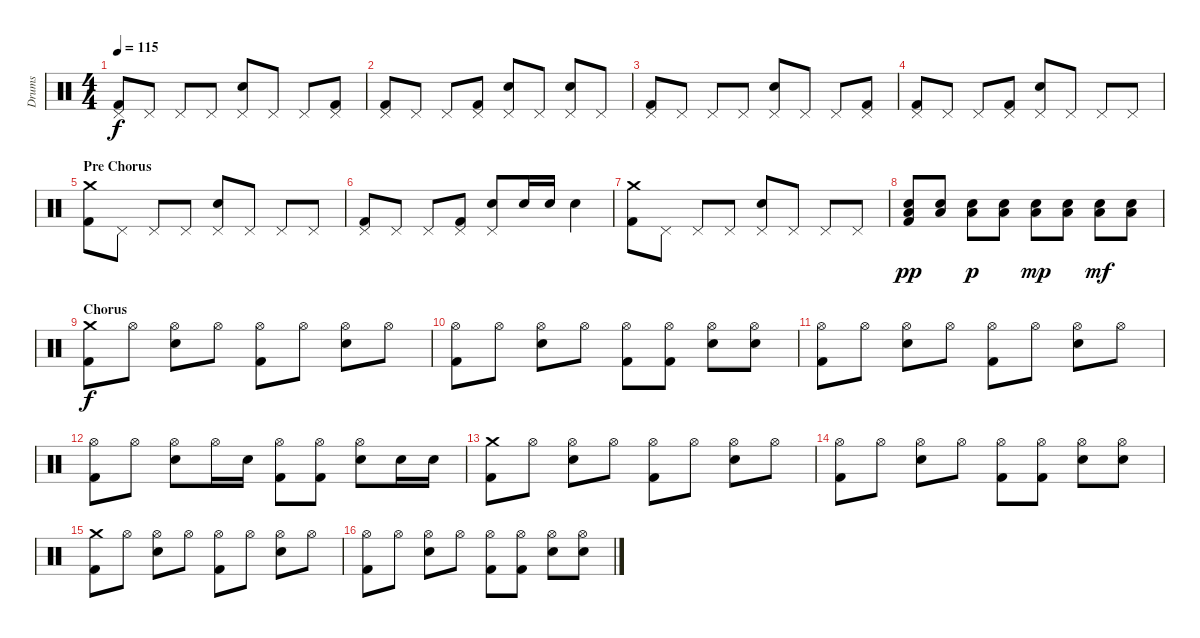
\track ("Drums" "Drums") {instrument percussion}
\staff {score}
\articulation defaults
\ts (4 4)
\tempo 115
\clef neutral
\ks c
("Pedal Hi-Hat (hit)" "Kick (hit) 2").8{dy f} "Pedal Hi-Hat (hit)".8 "Pedal Hi-Hat (hit)".8 "Pedal Hi-Hat (hit)".8 ("Pedal Hi-Hat (hit)" "Electric Snare (hit)").8 "Pedal Hi-Hat (hit)".8 "Pedal Hi-Hat (hit)".8 ("Pedal Hi-Hat (hit)" "Kick (hit) 2").8 |
("Pedal Hi-Hat (hit)" "Kick (hit) 2").8 "Pedal Hi-Hat (hit)".8 "Pedal Hi-Hat (hit)".8 ("Pedal Hi-Hat (hit)" "Kick (hit) 2").8 ("Pedal Hi-Hat (hit)" "Electric Snare (hit)").8 "Pedal Hi-Hat (hit)".8 ("Pedal Hi-Hat (hit)" "Electric Snare (hit)").8 "Pedal Hi-Hat (hit)".8 |
("Pedal Hi-Hat (hit)" "Kick (hit) 2").8 "Pedal Hi-Hat (hit)".8 "Pedal Hi-Hat (hit)".8 "Pedal Hi-Hat (hit)".8 ("Pedal Hi-Hat (hit)" "Electric Snare (hit)").8 "Pedal Hi-Hat (hit)".8 "Pedal Hi-Hat (hit)".8 ("Pedal Hi-Hat (hit)" "Kick (hit) 2").8 |
("Pedal Hi-Hat (hit)" "Kick (hit) 2").8 "Pedal Hi-Hat (hit)".8 "Pedal Hi-Hat (hit)".8 ("Pedal Hi-Hat (hit)" "Kick (hit) 2").8 ("Pedal Hi-Hat (hit)" "Electric Snare (hit)").8 "Pedal Hi-Hat (hit)".8 "Pedal Hi-Hat (hit)".8 "Pedal Hi-Hat (hit)".8 |
\section ("" "Pre Chorus")
("Crash medium (hit)" "Kick (hit) 2").8 "Pedal Hi-Hat (hit)".8 "Pedal Hi-Hat (hit)".8 "Pedal Hi-Hat (hit)".8 ("Pedal Hi-Hat (hit)" "Electric Snare (hit)").8 "Pedal Hi-Hat (hit)".8 "Pedal Hi-Hat (hit)".8 "Pedal Hi-Hat (hit)".8 |
("Pedal Hi-Hat (hit)" "Kick (hit) 2").8 "Pedal Hi-Hat (hit)".8 "Pedal Hi-Hat (hit)".8 ("Pedal Hi-Hat (hit)" "Kick (hit) 2").8 ("Pedal Hi-Hat (hit)" "Electric Snare (hit)").8 "Electric Snare (hit)".16 "Electric Snare (hit)".16 "Electric Snare (hit)".4 |
("Crash medium (hit)" "Kick (hit) 2").8 "Pedal Hi-Hat (hit)".8 "Pedal Hi-Hat (hit)".8 "Pedal Hi-Hat (hit)".8 ("Pedal Hi-Hat (hit)" "Electric Snare (hit)").8 "Pedal Hi-Hat (hit)".8 "Pedal Hi-Hat (hit)".8 "Pedal Hi-Hat (hit)".8 |
("Electric Snare (hit)" "Low Tom (hit)" "Kick (hit) 2").8{dy pp} ("Electric Snare (hit)" "Low Tom (hit)").8 ("Electric Snare (hit)" "Low Tom (hit)").8{dy p} ("Electric Snare (hit)" "Low Tom (hit)").8 ("Electric Snare (hit)" "Low Tom (hit)").8{dy mp} ("Electric Snare (hit)" "Low Tom (hit)").8 ("Electric Snare (hit)" "Low Tom (hit)").8{dy mf} ("Electric Snare (hit)" "Low Tom (hit)").8 |
\section ("" "Chorus")
("Crash medium (hit)" "Kick (hit) 2").8{dy f} "Hi-Hat (open)".8 ("Hi-Hat (open)" "Electric Snare (hit)").8 "Hi-Hat (open)".8 ("Hi-Hat (open)" "Kick (hit) 2").8 "Hi-Hat (open)".8 ("Hi-Hat (open)" "Electric Snare (hit)").8 "Hi-Hat (open)".8 |
("Hi-Hat (open)" "Kick (hit) 2").8 "Hi-Hat (open)".8 ("Hi-Hat (open)" "Electric Snare (hit)").8 "Hi-Hat (open)".8 ("Hi-Hat (open)" "Kick (hit) 2").8 ("Hi-Hat (open)" "Kick (hit) 2").8 ("Hi-Hat (open)" "Electric Snare (hit)").8 ("Hi-Hat (open)" "Electric Snare (hit)").8 |
("Hi-Hat (open)" "Kick (hit) 2").8 "Hi-Hat (open)".8 ("Hi-Hat (open)" "Electric Snare (hit)").8 "Hi-Hat (open)".8 ("Hi-Hat (open)" "Kick (hit) 2").8 "Hi-Hat (open)".8 ("Hi-Hat (open)" "Electric Snare (hit)").8 "Hi-Hat (open)".8 |
("Hi-Hat (open)" "Kick (hit) 2").8 "Hi-Hat (open)".8 ("Hi-Hat (open)" "Electric Snare (hit)").8 "Hi-Hat (open)".16 "Electric Snare (hit)".16 ("Hi-Hat (open)" "Kick (hit) 2").8 ("Hi-Hat (open)" "Kick (hit) 2").8 ("Hi-Hat (open)" "Electric Snare (hit)").8 "Electric Snare (hit)".16 "Electric Snare (hit)".16 |
("Crash medium (hit)" "Kick (hit) 2").8 "Hi-Hat (open)".8 ("Hi-Hat (open)" "Electric Snare (hit)").8 "Hi-Hat (open)".8 ("Hi-Hat (open)" "Kick (hit) 2").8 "Hi-Hat (open)".8 ("Hi-Hat (open)" "Electric Snare (hit)").8 "Hi-Hat (open)".8 |
("Hi-Hat (open)" "Kick (hit) 2").8 "Hi-Hat (open)".8 ("Hi-Hat (open)" "Electric Snare (hit)").8 "Hi-Hat (open)".8 ("Hi-Hat (open)" "Kick (hit) 2").8 ("Hi-Hat (open)" "Kick (hit) 2").8 ("Hi-Hat (open)" "Electric Snare (hit)").8 ("Hi-Hat (open)" "Electric Snare (hit)").8 |
("Crash medium (hit)" "Kick (hit) 2").8 "Hi-Hat (open)".8 ("Hi-Hat (open)" "Electric Snare (hit)").8 "Hi-Hat (open)".8 ("Hi-Hat (open)" "Kick (hit) 2").8 "Hi-Hat (open)".8 ("Hi-Hat (open)" "Electric Snare (hit)").8 "Hi-Hat (open)".8 |
("Hi-Hat (open)" "Kick (hit) 2").8 "Hi-Hat (open)".8 ("Hi-Hat (open)" "Electric Snare (hit)").8 "Hi-Hat (open)".8 ("Hi-Hat (open)" "Kick (hit) 2").8 ("Hi-Hat (open)" "Kick (hit) 2").8 ("Hi-Hat (open)" "Electric Snare (hit)").8 ("Hi-Hat (open)" "Electric Snare (hit)").8
